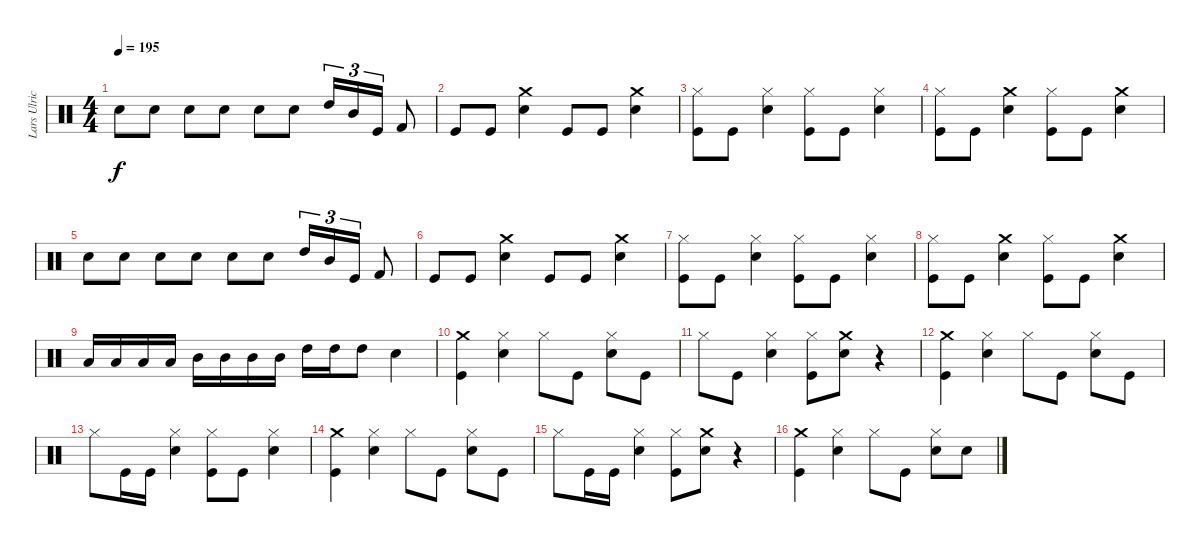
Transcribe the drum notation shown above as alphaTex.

\track ("Lars Ulrich (Drums)" "Lars Ulric") {instrument percussion}
\staff {score}
\articulation defaults
\ts (4 4)
\tempo 195
\clef neutral
\ks c "Snare (hit) 2".8{dy f} "Snare (hit) 2".8 "Snare (hit) 2".8 "Snare (hit) 2".8 "Snare (hit) 2".8 "Snare (hit) 2".8 "High Tom (hit)".16{tu (3 2)} "Mid Tom (hit)".16{tu (3 2)} "Kick (hit)".16{tu (3 2)} "Kick (hit) 2".8
|
"Kick (hit)".8 "Kick (hit)".8 ("Crash medium (hit)" "Snare (hit) 2").4 "Kick (hit)".8 "Kick (hit)".8 ("Crash medium (hit)" "Snare (hit) 2").4 |
("Kick (hit)" "Hi-Hat (closed)").8 "Kick (hit)".8 ("Snare (hit) 2" "Hi-Hat (closed)").4 ("Kick (hit)" "Hi-Hat (closed)").8 "Kick (hit)".8 ("Snare (hit) 2" "Hi-Hat (closed)").4 |
("Kick (hit)" "Hi-Hat (closed)").8 "Kick (hit)".8 ("Snare (hit) 2" "Crash medium (hit)").4 ("Kick (hit)" "Hi-Hat (closed)").8 "Kick (hit)".8 ("Crash medium (hit)" "Snare (hit) 2").4 |
"Snare (hit) 2".8 "Snare (hit) 2".8 "Snare (hit) 2".8 "Snare (hit) 2".8 "Snare (hit) 2".8 "Snare (hit) 2".8 "High Tom (hit)".16{tu (3 2)} "Mid Tom (hit)".16{tu (3 2)} "Kick (hit)".16{tu (3 2)} "Kick (hit) 2".8 |
"Kick (hit)".8 "Kick (hit)".8 ("Crash medium (hit)" "Snare (hit) 2").4 "Kick (hit)".8 "Kick (hit)".8 ("Crash medium (hit)" "Snare (hit) 2").4 |
("Kick (hit)" "Hi-Hat (closed)").8 "Kick (hit)".8 ("Snare (hit) 2" "Hi-Hat (closed)").4 ("Kick (hit)" "Hi-Hat (closed)").8 "Kick (hit)".8 ("Snare (hit) 2" "Hi-Hat (closed)").4 |
("Kick (hit)" "Hi-Hat (closed)").8 "Kick (hit)".8 ("Snare (hit) 2" "Crash medium (hit)").4 ("Kick (hit)" "Hi-Hat (closed)").8 "Kick (hit)".8 ("Crash medium (hit)" "Snare (hit) 2").4 |
"Low Tom (hit)".16 "Low Tom (hit)".16 "Low Tom (hit)".16 "Low Tom (hit)".16 "Mid Tom (hit)".16 "Mid Tom (hit)".16 "Mid Tom (hit)".16 "Mid Tom (hit)".16 "High Tom (hit)".16 "High Tom (hit)".16 "High Tom (hit)".8 "Snare (hit) 2".4 |
("Kick (hit)" "Crash medium (hit)").4 ("Hi-Hat (closed)" "Snare (hit) 2").4 "Hi-Hat (closed)".8 "Kick (hit)".8 ("Snare (hit) 2" "Hi-Hat (closed)").8 "Kick (hit)".8 |
"Hi-Hat (closed)".8 "Kick (hit)".8 ("Snare (hit) 2" "Hi-Hat (closed)").4 ("Hi-Hat (closed)" "Kick (hit)").8 ("Crash medium (hit)" "Snare (hit) 2").8 r.4 |
("Crash medium (hit)" "Kick (hit)").4 ("Hi-Hat (closed)" "Snare (hit) 2").4 "Hi-Hat (closed)".8 "Kick (hit)".8 ("Snare (hit) 2" "Hi-Hat (closed)").8 "Kick (hit)".8 |
"Hi-Hat (closed)".8 "Kick (hit)".16 "Kick (hit)".16 ("Snare (hit) 2" "Hi-Hat (closed)").4 ("Hi-Hat (closed)" "Kick (hit)").8 "Kick (hit)".8 ("Snare (hit) 2" "Hi-Hat (closed)").4 |
("Kick (hit)" "Crash medium (hit)").4 ("Hi-Hat (closed)" "Snare (hit) 2").4 "Hi-Hat (closed)".8 "Kick (hit)".8 ("Snare (hit) 2" "Hi-Hat (closed)").8 "Kick (hit)".8 |
"Hi-Hat (closed)".8 "Kick (hit)".16 "Kick (hit)".16 ("Snare (hit) 2" "Hi-Hat (closed)").4 ("Hi-Hat (closed)" "Kick (hit)").8 ("Crash medium (hit)" "Snare (hit) 2").8 r.4 |
("Kick (hit)" "Crash medium (hit)").4 ("Hi-Hat (closed)" "Snare (hit) 2").4 "Hi-Hat (closed)".8 "Kick (hit)".8 ("Hi-Hat (closed)" "Snare (hit) 2").8 "Snare (hit) 2".8
